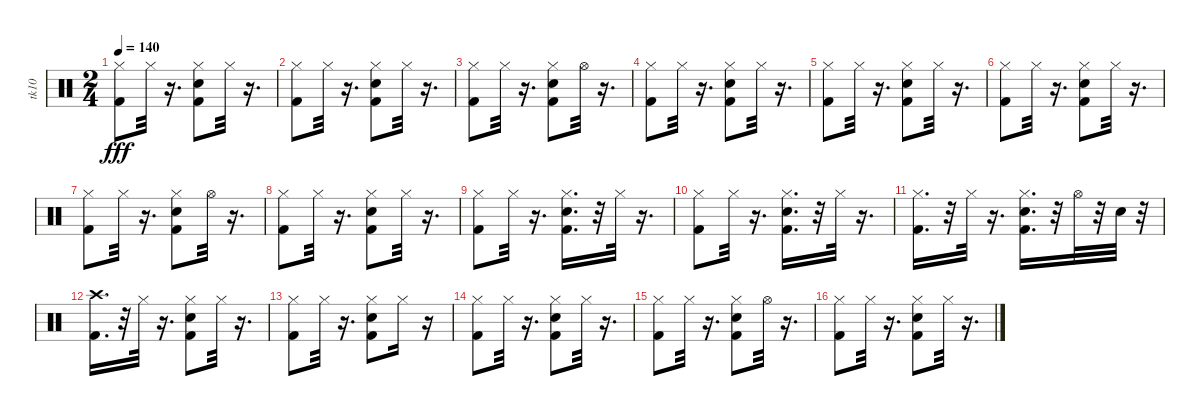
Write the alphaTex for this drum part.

\track ("tk10" "tk10") {instrument percussion}
\staff {score}
\articulation defaults
\ts (2 4)
\tempo 140
\clef neutral
\ks c
("Kick (hit) 2" "Hi-Hat (closed)").8{dy fff} "Hi-Hat (closed)".32 r.16{d} ("Kick (hit) 2" "Hi-Hat (closed)" "Snare (hit) 2").8 "Hi-Hat (closed)".32 r.16{d} |
("Kick (hit) 2" "Hi-Hat (closed)").8 "Hi-Hat (closed)".32 r.16{d} ("Snare (hit) 2" "Kick (hit) 2" "Hi-Hat (closed)").8 "Hi-Hat (closed)".32 r.16{d} |
("Kick (hit) 2" "Hi-Hat (closed)").8 "Hi-Hat (closed)".32 r.16{d} ("Snare (hit) 2" "Kick (hit) 2" "Hi-Hat (closed)").8 "Hi-Hat (open)".32 r.16{d} |
("Kick (hit) 2" "Hi-Hat (closed)").8 "Hi-Hat (closed)".32 r.16{d} ("Snare (hit) 2" "Kick (hit) 2" "Hi-Hat (closed)").8 "Hi-Hat (closed)".32 r.16{d} |
("Kick (hit) 2" "Hi-Hat (closed)").8 "Hi-Hat (closed)".32 r.16{d} ("Kick (hit) 2" "Hi-Hat (closed)" "Snare (hit) 2").8 "Hi-Hat (closed)".32 r.16{d} |
("Kick (hit) 2" "Hi-Hat (closed)").8 "Hi-Hat (closed)".32 r.16{d} ("Kick (hit) 2" "Hi-Hat (closed)" "Snare (hit) 2").8 "Hi-Hat (closed)".32 r.16{d} |
("Kick (hit) 2" "Hi-Hat (closed)").8 "Hi-Hat (closed)".32 r.16{d} ("Snare (hit) 2" "Kick (hit) 2" "Hi-Hat (closed)").8 "Hi-Hat (open)".32 r.16{d} |
("Kick (hit) 2" "Hi-Hat (closed)").8 "Hi-Hat (closed)".32 r.16{d} ("Snare (hit) 2" "Kick (hit) 2" "Hi-Hat (closed)").8 "Hi-Hat (closed)".32 r.16{d} |
("Kick (hit) 2" "Hi-Hat (closed)").8 "Hi-Hat (closed)".32 r.16{d} ("Snare (hit) 2" "Kick (hit) 2" "Hi-Hat (closed)").16{d} r.32 "Hi-Hat (closed)".32 r.16{d} |
("Kick (hit) 2" "Hi-Hat (closed)").8 "Hi-Hat (closed)".32 r.16{d} ("Snare (hit) 2" "Kick (hit) 2" "Hi-Hat (closed)").16{d} r.32 "Hi-Hat (closed)".32 r.16{d} |
("Kick (hit) 2" "Hi-Hat (closed)").16{d} r.32 "Hi-Hat (closed)".32 r.16{d} ("Kick (hit) 2" "Hi-Hat (closed)" "Snare (hit) 2").16{d} r.32 "Hi-Hat (open)".32 r.32 "Snare (hit) 2".32 r.32 |
("Kick (hit) 2" "Crash high (hit)").16{d} r.32 "Hi-Hat (closed)".32 r.16{d} ("Hi-Hat (closed)" "Kick (hit) 2" "Snare (hit) 2").8 "Hi-Hat (closed)".32 r.16{d} |
("Kick (hit) 2" "Hi-Hat (closed)").8 "Hi-Hat (closed)".32 r.16{d} ("Snare (hit) 2" "Kick (hit) 2" "Hi-Hat (closed)").8 "Hi-Hat (closed)".16 r.16 |
("Kick (hit) 2" "Hi-Hat (closed)").8 "Hi-Hat (closed)".32 r.16{d} ("Hi-Hat (closed)" "Snare (hit) 2" "Kick (hit) 2").8 "Hi-Hat (closed)".32 r.16{d} |
("Kick (hit) 2" "Hi-Hat (closed)").8 "Hi-Hat (closed)".32 r.16{d} ("Snare (hit) 2" "Hi-Hat (closed)" "Kick (hit) 2").8 "Hi-Hat (open)".32 r.16{d} |
("Kick (hit) 2" "Hi-Hat (closed)").8 "Hi-Hat (closed)".32 r.16{d} ("Snare (hit) 2" "Kick (hit) 2" "Hi-Hat (closed)").8 "Hi-Hat (closed)".32 r.16{d}
